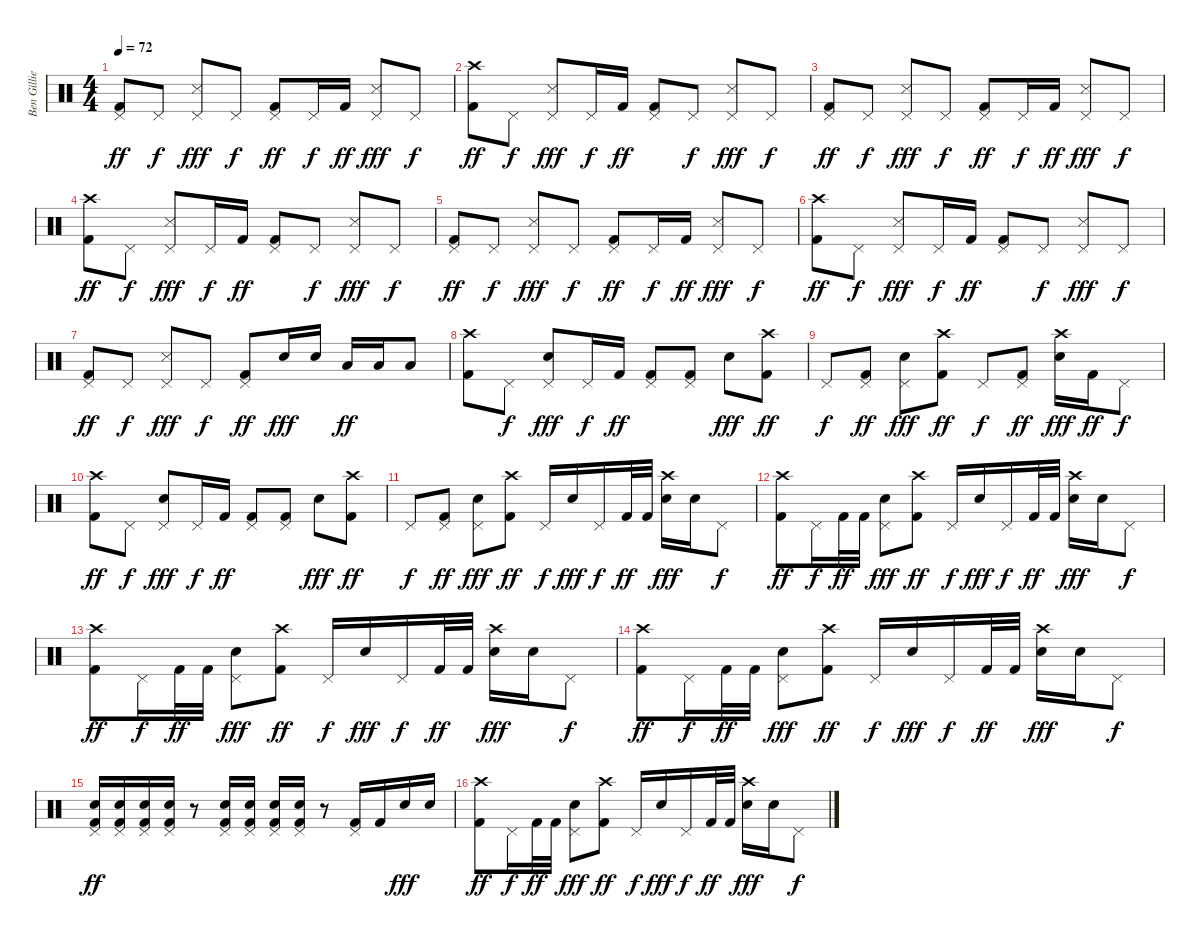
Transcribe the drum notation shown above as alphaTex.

\track ("Ben Gillies" "Ben Gillie") {instrument percussion}
\staff {score}
\articulation defaults
\ts (4 4)
\tempo 72
\clef neutral
\ks c
("Pedal Hi-Hat (hit)" "Kick (hit) 2").8{dy ff} "Pedal Hi-Hat (hit)".8{dy f} ("Pedal Hi-Hat (hit)" "Snare (side stick) 3").8{dy fff} "Pedal Hi-Hat (hit)".8{dy f} ("Pedal Hi-Hat (hit)" "Kick (hit) 2").8{dy ff} "Pedal Hi-Hat (hit)".16{dy f} "Kick (hit) 2".16{dy ff} ("Pedal Hi-Hat (hit)" "Snare (side stick) 3").8{dy fff} "Pedal Hi-Hat (hit)".8{dy f} |
("Crash high (hit)" "Kick (hit) 2").8{dy ff} "Pedal Hi-Hat (hit)".8{dy f} ("Pedal Hi-Hat (hit)" "Snare (side stick) 3").8{dy fff} "Pedal Hi-Hat (hit)".16{dy f} "Kick (hit) 2".16{dy ff} ("Pedal Hi-Hat (hit)" "Kick (hit) 2").8 "Pedal Hi-Hat (hit)".8{dy f} ("Pedal Hi-Hat (hit)" "Snare (side stick) 3").8{dy fff} "Pedal Hi-Hat (hit)".8{dy f} |
("Pedal Hi-Hat (hit)" "Kick (hit) 2").8{dy ff} "Pedal Hi-Hat (hit)".8{dy f} ("Pedal Hi-Hat (hit)" "Snare (side stick) 3").8{dy fff} "Pedal Hi-Hat (hit)".8{dy f} ("Pedal Hi-Hat (hit)" "Kick (hit) 2").8{dy ff} "Pedal Hi-Hat (hit)".16{dy f} "Kick (hit) 2".16{dy ff} ("Pedal Hi-Hat (hit)" "Snare (side stick) 3").8{dy fff} "Pedal Hi-Hat (hit)".8{dy f} |
("Crash high (hit)" "Kick (hit) 2").8{dy ff} "Pedal Hi-Hat (hit)".8{dy f} ("Pedal Hi-Hat (hit)" "Snare (side stick) 3").8{dy fff} "Pedal Hi-Hat (hit)".16{dy f} "Kick (hit) 2".16{dy ff} ("Pedal Hi-Hat (hit)" "Kick (hit) 2").8 "Pedal Hi-Hat (hit)".8{dy f} ("Pedal Hi-Hat (hit)" "Snare (side stick) 3").8{dy fff} "Pedal Hi-Hat (hit)".8{dy f} |
("Pedal Hi-Hat (hit)" "Kick (hit) 2").8{dy ff} "Pedal Hi-Hat (hit)".8{dy f} ("Pedal Hi-Hat (hit)" "Snare (side stick) 3").8{dy fff} "Pedal Hi-Hat (hit)".8{dy f} ("Pedal Hi-Hat (hit)" "Kick (hit) 2").8{dy ff} "Pedal Hi-Hat (hit)".16{dy f} "Kick (hit) 2".16{dy ff} ("Pedal Hi-Hat (hit)" "Snare (side stick) 3").8{dy fff} "Pedal Hi-Hat (hit)".8{dy f} |
("Crash high (hit)" "Kick (hit) 2").8{dy ff} "Pedal Hi-Hat (hit)".8{dy f} ("Pedal Hi-Hat (hit)" "Snare (side stick) 3").8{dy fff} "Pedal Hi-Hat (hit)".16{dy f} "Kick (hit) 2".16{dy ff} ("Pedal Hi-Hat (hit)" "Kick (hit) 2").8 "Pedal Hi-Hat (hit)".8{dy f} ("Pedal Hi-Hat (hit)" "Snare (side stick) 3").8{dy fff} "Pedal Hi-Hat (hit)".8{dy f} |
("Pedal Hi-Hat (hit)" "Kick (hit) 2").8{dy ff} "Pedal Hi-Hat (hit)".8{dy f} ("Pedal Hi-Hat (hit)" "Snare (side stick) 3").8{dy fff} "Pedal Hi-Hat (hit)".8{dy f} ("Pedal Hi-Hat (hit)" "Kick (hit) 2").8{dy ff} "Electric Snare (hit)".16{dy fff} "Electric Snare (hit)".16 "Low Tom (hit)".16{dy ff} "Low Tom (hit)".16 "Low Floor Tom (hit)".8 |
("Crash high (hit)" "Kick (hit) 2").8 "Pedal Hi-Hat (hit)".8{dy f} ("Pedal Hi-Hat (hit)" "Electric Snare (hit)").8{dy fff} "Pedal Hi-Hat (hit)".16{dy f} "Kick (hit) 2".16{dy ff} ("Pedal Hi-Hat (hit)" "Kick (hit) 2").8 ("Pedal Hi-Hat (hit)" "Kick (hit) 2").8 "Electric Snare (hit)".8{dy fff} ("Crash high (hit)" "Kick (hit) 2").8{dy ff} |
"Pedal Hi-Hat (hit)".8{dy f} ("Pedal Hi-Hat (hit)" "Kick (hit) 2").8{dy ff} ("Pedal Hi-Hat (hit)" "Electric Snare (hit)").8{dy fff} ("Crash high (hit)" "Kick (hit) 2").8{dy ff} "Pedal Hi-Hat (hit)".8{dy f} ("Pedal Hi-Hat (hit)" "Kick (hit) 2").8{dy ff} ("Crash high (hit)" "Electric Snare (hit)").16{dy fff} "Kick (hit) 2".16{dy ff} "Pedal Hi-Hat (hit)".8{dy f} |
("Crash high (hit)" "Kick (hit) 2").8{dy ff} "Pedal Hi-Hat (hit)".8{dy f} ("Pedal Hi-Hat (hit)" "Electric Snare (hit)").8{dy fff} "Pedal Hi-Hat (hit)".16{dy f} "Kick (hit) 2".16{dy ff} ("Pedal Hi-Hat (hit)" "Kick (hit) 2").8 ("Pedal Hi-Hat (hit)" "Kick (hit) 2").8 "Electric Snare (hit)".8{dy fff} ("Crash high (hit)" "Kick (hit) 2").8{dy ff} |
"Pedal Hi-Hat (hit)".8{dy f} ("Pedal Hi-Hat (hit)" "Kick (hit) 2").8{dy ff} ("Pedal Hi-Hat (hit)" "Electric Snare (hit)").8{dy fff} ("Crash high (hit)" "Kick (hit) 2").8{dy ff} "Pedal Hi-Hat (hit)".16{dy f} "Electric Snare (hit)".16{dy fff} "Pedal Hi-Hat (hit)".16{dy f} "Kick (hit) 2".32{dy ff} "Kick (hit) 2".32 ("Crash high (hit)" "Electric Snare (hit)").16{dy fff} "Electric Snare (hit)".16 "Pedal Hi-Hat (hit)".8{dy f} |
("Crash high (hit)" "Kick (hit) 2").8{dy ff} "Pedal Hi-Hat (hit)".16{dy f} "Kick (hit) 2".32{dy ff} "Kick (hit) 2".32 ("Pedal Hi-Hat (hit)" "Electric Snare (hit)").8{dy fff} ("Crash high (hit)" "Kick (hit) 2").8{dy ff} "Pedal Hi-Hat (hit)".16{dy f} "Electric Snare (hit)".16{dy fff} "Pedal Hi-Hat (hit)".16{dy f} "Kick (hit) 2".32{dy ff} "Kick (hit) 2".32 ("Crash high (hit)" "Electric Snare (hit)").16{dy fff} "Electric Snare (hit)".16 "Pedal Hi-Hat (hit)".8{dy f} |
("Crash high (hit)" "Kick (hit) 2").8{dy ff} "Pedal Hi-Hat (hit)".16{dy f} "Kick (hit) 2".32{dy ff} "Kick (hit) 2".32 ("Pedal Hi-Hat (hit)" "Electric Snare (hit)").8{dy fff} ("Crash high (hit)" "Kick (hit) 2").8{dy ff} "Pedal Hi-Hat (hit)".16{dy f} "Electric Snare (hit)".16{dy fff} "Pedal Hi-Hat (hit)".16{dy f} "Kick (hit) 2".32{dy ff} "Kick (hit) 2".32 ("Crash high (hit)" "Electric Snare (hit)").16{dy fff} "Electric Snare (hit)".16 "Pedal Hi-Hat (hit)".8{dy f} |
("Crash high (hit)" "Kick (hit) 2").8{dy ff} "Pedal Hi-Hat (hit)".16{dy f} "Kick (hit) 2".32{dy ff} "Kick (hit) 2".32 ("Pedal Hi-Hat (hit)" "Electric Snare (hit)").8{dy fff} ("Crash high (hit)" "Kick (hit) 2").8{dy ff} "Pedal Hi-Hat (hit)".16{dy f} "Electric Snare (hit)".16{dy fff} "Pedal Hi-Hat (hit)".16{dy f} "Kick (hit) 2".32{dy ff} "Kick (hit) 2".32 ("Crash high (hit)" "Electric Snare (hit)").16{dy fff} "Electric Snare (hit)".16 "Pedal Hi-Hat (hit)".8{dy f} |
("Pedal Hi-Hat (hit)" "Electric Snare (hit)" "Kick (hit) 2").16{dy ff} ("Pedal Hi-Hat (hit)" "Electric Snare (hit)" "Kick (hit) 2").16 ("Pedal Hi-Hat (hit)" "Electric Snare (hit)" "Kick (hit) 2").16 ("Pedal Hi-Hat (hit)" "Electric Snare (hit)" "Kick (hit) 2").16 r.8 ("Pedal Hi-Hat (hit)" "Electric Snare (hit)" "Kick (hit) 2").16 ("Pedal Hi-Hat (hit)" "Electric Snare (hit)" "Kick (hit) 2").16 ("Pedal Hi-Hat (hit)" "Electric Snare (hit)" "Kick (hit) 2").16 ("Pedal Hi-Hat (hit)" "Electric Snare (hit)" "Kick (hit) 2").16 r.8 ("Pedal Hi-Hat (hit)" "Kick (hit) 2").16 "Kick (hit) 2".16 "Electric Snare (hit)".16{dy fff} "Electric Snare (hit)".16 |
("Crash high (hit)" "Kick (hit) 2").8{dy ff} "Pedal Hi-Hat (hit)".16{dy f} "Kick (hit) 2".32{dy ff} "Kick (hit) 2".32 ("Pedal Hi-Hat (hit)" "Electric Snare (hit)").8{dy fff} ("Crash high (hit)" "Kick (hit) 2").8{dy ff} "Pedal Hi-Hat (hit)".16{dy f} "Electric Snare (hit)".16{dy fff} "Pedal Hi-Hat (hit)".16{dy f} "Kick (hit) 2".32{dy ff} "Kick (hit) 2".32 ("Crash high (hit)" "Electric Snare (hit)").16{dy fff} "Electric Snare (hit)".16 "Pedal Hi-Hat (hit)".8{dy f}
